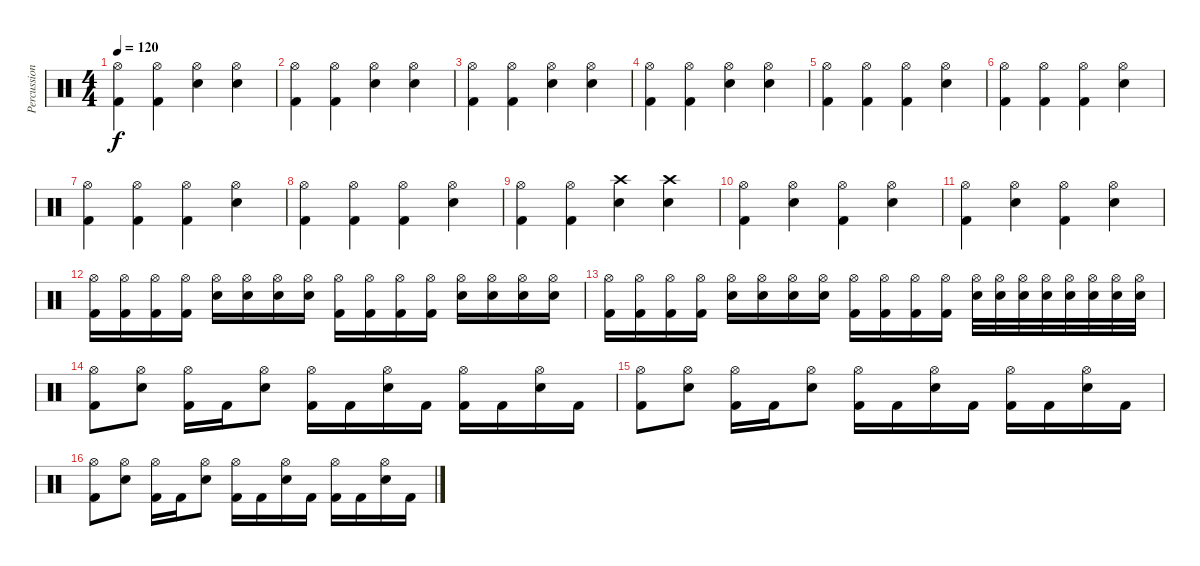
\track ("Percussions" "Percussion") {instrument percussion}
\staff {score}
\articulation defaults
\ts (4 4)
\tempo 120
\clef neutral
\ks c
("Hi-Hat (open)" "Kick (hit) 2").4{dy f} ("Hi-Hat (open)" "Kick (hit) 2").4 ("Hi-Hat (open)" "Electric Snare (hit)").4 ("Hi-Hat (open)" "Electric Snare (hit)").4 |
("Hi-Hat (open)" "Kick (hit) 2").4 ("Hi-Hat (open)" "Kick (hit) 2").4 ("Hi-Hat (open)" "Electric Snare (hit)").4 ("Hi-Hat (open)" "Electric Snare (hit)").4 |
("Hi-Hat (open)" "Kick (hit) 2").4 ("Hi-Hat (open)" "Kick (hit) 2").4 ("Hi-Hat (open)" "Electric Snare (hit)").4 ("Hi-Hat (open)" "Electric Snare (hit)").4 |
("Hi-Hat (open)" "Kick (hit) 2").4 ("Hi-Hat (open)" "Kick (hit) 2").4 ("Hi-Hat (open)" "Electric Snare (hit)").4 ("Hi-Hat (open)" "Electric Snare (hit)").4 |
("Hi-Hat (open)" "Kick (hit) 2").4 ("Hi-Hat (open)" "Kick (hit) 2").4 ("Hi-Hat (open)" "Kick (hit) 2").4 ("Hi-Hat (open)" "Electric Snare (hit)").4 |
("Hi-Hat (open)" "Kick (hit) 2").4 ("Hi-Hat (open)" "Kick (hit) 2").4 ("Hi-Hat (open)" "Kick (hit) 2").4 ("Hi-Hat (open)" "Electric Snare (hit)").4 |
("Hi-Hat (open)" "Kick (hit) 2").4 ("Hi-Hat (open)" "Kick (hit) 2").4 ("Hi-Hat (open)" "Kick (hit) 2").4 ("Hi-Hat (open)" "Electric Snare (hit)").4 |
("Hi-Hat (open)" "Kick (hit) 2").4 ("Hi-Hat (open)" "Kick (hit) 2").4 ("Hi-Hat (open)" "Kick (hit) 2").4 ("Hi-Hat (open)" "Electric Snare (hit)").4 |
("Hi-Hat (open)" "Kick (hit) 2").4 ("Hi-Hat (open)" "Kick (hit) 2").4 ("Crash high (hit)" "Electric Snare (hit)").4 ("Crash high (hit)" "Electric Snare (hit)").4 |
("Hi-Hat (open)" "Kick (hit) 2").4 ("Hi-Hat (open)" "Electric Snare (hit)").4 ("Hi-Hat (open)" "Kick (hit) 2").4 ("Hi-Hat (open)" "Electric Snare (hit)").4 |
("Hi-Hat (open)" "Kick (hit) 2").4 ("Hi-Hat (open)" "Electric Snare (hit)").4 ("Hi-Hat (open)" "Kick (hit) 2").4 ("Hi-Hat (open)" "Electric Snare (hit)").4 |
("Hi-Hat (open)" "Kick (hit) 2").16 ("Hi-Hat (open)" "Kick (hit) 2").16 ("Hi-Hat (open)" "Kick (hit) 2").16 ("Hi-Hat (open)" "Kick (hit) 2").16 ("Hi-Hat (open)" "Electric Snare (hit)").16 ("Hi-Hat (open)" "Electric Snare (hit)").16 ("Hi-Hat (open)" "Electric Snare (hit)").16 ("Hi-Hat (open)" "Electric Snare (hit)").16 ("Hi-Hat (open)" "Kick (hit) 2").16 ("Hi-Hat (open)" "Kick (hit) 2").16 ("Hi-Hat (open)" "Kick (hit) 2").16 ("Hi-Hat (open)" "Kick (hit) 2").16 ("Hi-Hat (open)" "Electric Snare (hit)").16 ("Hi-Hat (open)" "Electric Snare (hit)").16 ("Hi-Hat (open)" "Electric Snare (hit)").16 ("Hi-Hat (open)" "Electric Snare (hit)").16 |
("Hi-Hat (open)" "Kick (hit) 2").16 ("Hi-Hat (open)" "Kick (hit) 2").16 ("Hi-Hat (open)" "Kick (hit) 2").16 ("Hi-Hat (open)" "Kick (hit) 2").16 ("Hi-Hat (open)" "Electric Snare (hit)").16 ("Hi-Hat (open)" "Electric Snare (hit)").16 ("Hi-Hat (open)" "Electric Snare (hit)").16 ("Hi-Hat (open)" "Electric Snare (hit)").16 ("Hi-Hat (open)" "Kick (hit) 2").16 ("Hi-Hat (open)" "Kick (hit) 2").16 ("Hi-Hat (open)" "Kick (hit) 2").16 ("Hi-Hat (open)" "Kick (hit) 2").16 ("Hi-Hat (open)" "Electric Snare (hit)").32 ("Hi-Hat (open)" "Electric Snare (hit)").32 ("Hi-Hat (open)" "Electric Snare (hit)").32 ("Hi-Hat (open)" "Electric Snare (hit)").32 ("Hi-Hat (open)" "Electric Snare (hit)").32 ("Hi-Hat (open)" "Electric Snare (hit)").32 ("Hi-Hat (open)" "Electric Snare (hit)").32 ("Hi-Hat (open)" "Electric Snare (hit)").32 |
("Hi-Hat (open)" "Kick (hit) 2").8 ("Hi-Hat (open)" "Electric Snare (hit)").8 ("Hi-Hat (open)" "Kick (hit) 2").16 "Kick (hit) 2".16 ("Hi-Hat (open)" "Electric Snare (hit)").8 ("Hi-Hat (open)" "Kick (hit) 2").16 "Kick (hit) 2".16 ("Hi-Hat (open)" "Electric Snare (hit)").16 "Kick (hit) 2".16 ("Hi-Hat (open)" "Kick (hit) 2").16 "Kick (hit) 2".16 ("Hi-Hat (open)" "Electric Snare (hit)").16 "Kick (hit) 2".16 |
("Hi-Hat (open)" "Kick (hit) 2").8 ("Hi-Hat (open)" "Electric Snare (hit)").8 ("Hi-Hat (open)" "Kick (hit) 2").16 "Kick (hit) 2".16 ("Hi-Hat (open)" "Electric Snare (hit)").8 ("Hi-Hat (open)" "Kick (hit) 2").16 "Kick (hit) 2".16 ("Hi-Hat (open)" "Electric Snare (hit)").16 "Kick (hit) 2".16 ("Hi-Hat (open)" "Kick (hit) 2").16 "Kick (hit) 2".16 ("Hi-Hat (open)" "Electric Snare (hit)").16 "Kick (hit) 2".16 |
("Hi-Hat (open)" "Kick (hit) 2").8 ("Hi-Hat (open)" "Electric Snare (hit)").8 ("Hi-Hat (open)" "Kick (hit) 2").16 "Kick (hit) 2".16 ("Hi-Hat (open)" "Electric Snare (hit)").8 ("Hi-Hat (open)" "Kick (hit) 2").16 "Kick (hit) 2".16 ("Hi-Hat (open)" "Electric Snare (hit)").16 "Kick (hit) 2".16 ("Hi-Hat (open)" "Kick (hit) 2").16 "Kick (hit) 2".16 ("Hi-Hat (open)" "Electric Snare (hit)").16 "Kick (hit) 2".16
